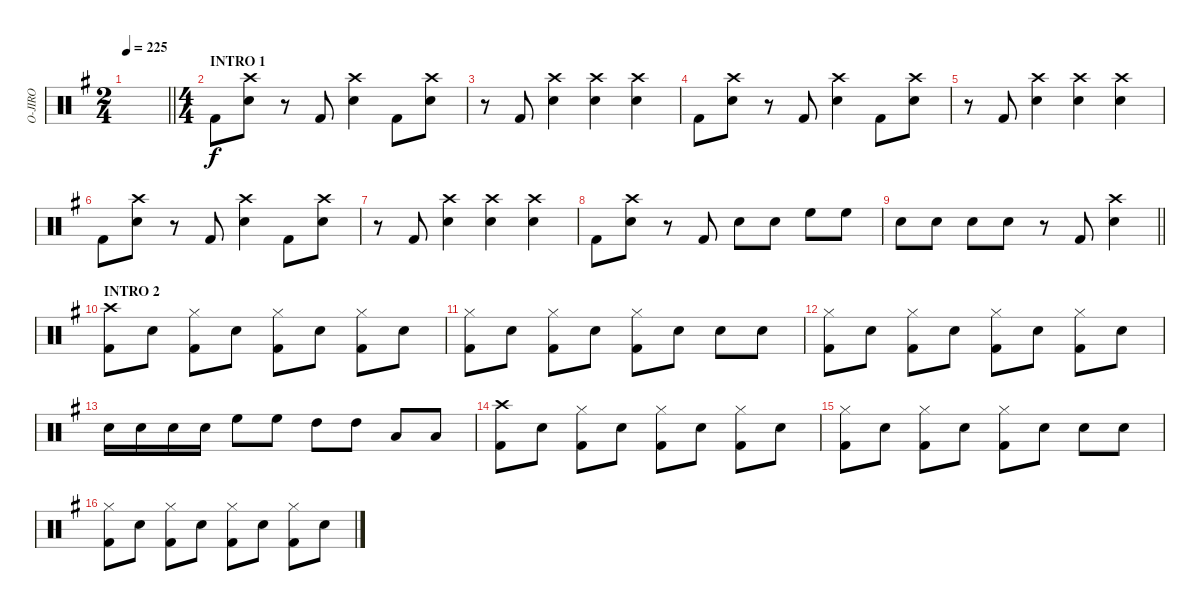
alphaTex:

\track ("O-JIRO" "O-JIRO") {instrument percussion}
\staff {score}
\articulation defaults
\ts (2 4)
\tempo 225
\clef neutral
\barLineRight lightlight
\ks g
|
\ts (4 4)
\section ("" "INTRO 1")
"Kick (hit) 2".8 ("Crash high (hit)" "Snare (hit) 2").8 r.8 "Kick (hit) 2".8 ("Crash high (hit)" "Snare (hit) 2").4 "Kick (hit) 2".8 ("Crash high (hit)" "Snare (hit) 2").8 |
r.8 "Kick (hit) 2".8 ("Crash high (hit)" "Snare (hit) 2").4 ("Crash high (hit)" "Snare (hit) 2").4 ("Crash high (hit)" "Snare (hit) 2").4 |
"Kick (hit) 2".8 ("Crash high (hit)" "Snare (hit) 2").8 r.8 "Kick (hit) 2".8 ("Crash high (hit)" "Snare (hit) 2").4 "Kick (hit) 2".8 ("Crash high (hit)" "Snare (hit) 2").8 |
r.8 "Kick (hit) 2".8 ("Crash high (hit)" "Snare (hit) 2").4 ("Crash high (hit)" "Snare (hit) 2").4 ("Crash high (hit)" "Snare (hit) 2").4 |
"Kick (hit) 2".8 ("Crash high (hit)" "Snare (hit) 2").8 r.8 "Kick (hit) 2".8 ("Crash high (hit)" "Snare (hit) 2").4 "Kick (hit) 2".8 ("Crash high (hit)" "Snare (hit) 2").8 |
r.8 "Kick (hit) 2".8 ("Crash high (hit)" "Snare (hit) 2").4 ("Crash high (hit)" "Snare (hit) 2").4 ("Crash high (hit)" "Snare (hit) 2").4 |
"Kick (hit) 2".8 ("Crash high (hit)" "Snare (hit) 2").8 r.8 "Kick (hit) 2".8 "Snare (hit) 2".8 "Snare (hit) 2".8 "High Floor Tom (hit)".8 "High Floor Tom (hit)".8 |
\barLineRight lightlight "Snare (hit) 2".8 "Snare (hit) 2".8 "Snare (hit) 2".8 "Snare (hit) 2".8
r.8 "Kick (hit) 2".8 ("Crash high (hit)" "Snare (hit) 2").4 |
\section ("" "INTRO 2")
("Crash high (hit)" "Kick (hit) 2").8 "Snare (hit) 2".8 ("Hi-Hat (closed)" "Kick (hit) 2").8 "Snare (hit) 2".8 ("Hi-Hat (closed)" "Kick (hit) 2").8 "Snare (hit) 2".8 ("Hi-Hat (closed)" "Kick (hit) 2").8 "Snare (hit) 2".8 |
("Hi-Hat (closed)" "Kick (hit) 2").8 "Snare (hit) 2".8 ("Hi-Hat (closed)" "Kick (hit) 2").8 "Snare (hit) 2".8 ("Hi-Hat (closed)" "Kick (hit) 2").8 "Snare (hit) 2".8 "Snare (hit) 2".8 "Snare (hit) 2".8 |
("Hi-Hat (closed)" "Kick (hit) 2").8 "Snare (hit) 2".8 ("Hi-Hat (closed)" "Kick (hit) 2").8 "Snare (hit) 2".8 ("Hi-Hat (closed)" "Kick (hit) 2").8 "Snare (hit) 2".8 ("Hi-Hat (closed)" "Kick (hit) 2").8 "Snare (hit) 2".8 |
"Snare (hit) 2".16 "Snare (hit) 2".16 "Snare (hit) 2".16 "Snare (hit) 2".16 "High Floor Tom (hit)".8 "High Floor Tom (hit)".8 "High Tom (hit)".8 "High Tom (hit)".8 "Low Tom (hit)".8 "Low Tom (hit)".8 |
("Crash high (hit)" "Kick (hit) 2").8 "Snare (hit) 2".8 ("Hi-Hat (closed)" "Kick (hit) 2").8 "Snare (hit) 2".8 ("Hi-Hat (closed)" "Kick (hit) 2").8 "Snare (hit) 2".8 ("Hi-Hat (closed)" "Kick (hit) 2").8 "Snare (hit) 2".8 |
("Hi-Hat (closed)" "Kick (hit) 2").8 "Snare (hit) 2".8 ("Hi-Hat (closed)" "Kick (hit) 2").8 "Snare (hit) 2".8 ("Hi-Hat (closed)" "Kick (hit) 2").8 "Snare (hit) 2".8 "Snare (hit) 2".8 "Snare (hit) 2".8 |
("Hi-Hat (closed)" "Kick (hit) 2").8 "Snare (hit) 2".8 ("Hi-Hat (closed)" "Kick (hit) 2").8 "Snare (hit) 2".8 ("Hi-Hat (closed)" "Kick (hit) 2").8 "Snare (hit) 2".8 ("Hi-Hat (closed)" "Kick (hit) 2").8 "Snare (hit) 2".8
